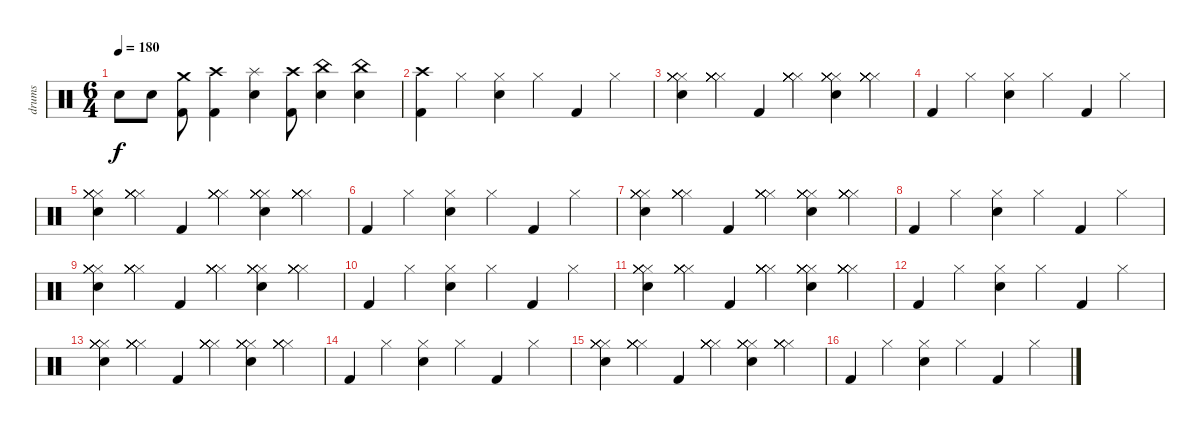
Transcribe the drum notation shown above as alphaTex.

\track ("drums" "drums") {instrument percussion}
\staff {score}
\articulation defaults
\ts (6 4)
\tempo 180
\clef neutral
\ks c "Snare (hit) 2".8{dy f} "Snare (hit) 2".8
("Kick (hit) 2" "Crash medium (hit)").8 ("Kick (hit) 2" "Crash high (hit)").4 ("Snare (hit) 2" "Splash (hit)").4 ("Kick (hit) 2" "Crash high (hit)").8 ("Snare (hit) 2" "China (hit)").4 ("Snare (hit) 2" "China (hit)").4 |
("Crash high (hit)" "Kick (hit) 2").4 "Hi-Hat (closed)".4 ("Snare (hit) 2" "Hi-Hat (closed)").4 "Hi-Hat (closed)".4 "Kick (hit) 2".4 "Hi-Hat (closed)".4 |
("Snare (hit) 2" "Hi-Hat (closed)" "Hi-Hat (closed)" "Hi-Hat (closed)" "Hi-Hat (closed)" "Hi-Hat (closed)").4 ("Hi-Hat (closed)" "Hi-Hat (closed)" "Hi-Hat (closed)" "Hi-Hat (closed)" "Hi-Hat (closed)" "Hi-Hat (closed)").4 "Kick (hit) 2".4 ("Hi-Hat (closed)" "Hi-Hat (closed)" "Hi-Hat (closed)" "Hi-Hat (closed)" "Hi-Hat (closed)" "Hi-Hat (closed)").4 ("Snare (hit) 2" "Hi-Hat (closed)" "Hi-Hat (closed)" "Hi-Hat (closed)" "Hi-Hat (closed)" "Hi-Hat (closed)").4 ("Hi-Hat (closed)" "Hi-Hat (closed)" "Hi-Hat (closed)" "Hi-Hat (closed)" "Hi-Hat (closed)" "Hi-Hat (closed)").4 |
"Kick (hit) 2".4 "Hi-Hat (closed)".4 ("Snare (hit) 2" "Hi-Hat (closed)").4 "Hi-Hat (closed)".4 "Kick (hit) 2".4 "Hi-Hat (closed)".4 |
("Snare (hit) 2" "Hi-Hat (closed)" "Hi-Hat (closed)" "Hi-Hat (closed)" "Hi-Hat (closed)" "Hi-Hat (closed)").4 ("Hi-Hat (closed)" "Hi-Hat (closed)" "Hi-Hat (closed)" "Hi-Hat (closed)" "Hi-Hat (closed)" "Hi-Hat (closed)").4 "Kick (hit) 2".4 ("Hi-Hat (closed)" "Hi-Hat (closed)" "Hi-Hat (closed)" "Hi-Hat (closed)" "Hi-Hat (closed)" "Hi-Hat (closed)").4 ("Snare (hit) 2" "Hi-Hat (closed)" "Hi-Hat (closed)" "Hi-Hat (closed)" "Hi-Hat (closed)" "Hi-Hat (closed)").4 ("Hi-Hat (closed)" "Hi-Hat (closed)" "Hi-Hat (closed)" "Hi-Hat (closed)" "Hi-Hat (closed)" "Hi-Hat (closed)").4 |
"Kick (hit) 2".4 "Hi-Hat (closed)".4 ("Snare (hit) 2" "Hi-Hat (closed)").4 "Hi-Hat (closed)".4 "Kick (hit) 2".4 "Hi-Hat (closed)".4 |
("Snare (hit) 2" "Hi-Hat (closed)" "Hi-Hat (closed)" "Hi-Hat (closed)" "Hi-Hat (closed)" "Hi-Hat (closed)").4 ("Hi-Hat (closed)" "Hi-Hat (closed)" "Hi-Hat (closed)" "Hi-Hat (closed)" "Hi-Hat (closed)" "Hi-Hat (closed)").4 "Kick (hit) 2".4 ("Hi-Hat (closed)" "Hi-Hat (closed)" "Hi-Hat (closed)" "Hi-Hat (closed)" "Hi-Hat (closed)" "Hi-Hat (closed)").4 ("Snare (hit) 2" "Hi-Hat (closed)" "Hi-Hat (closed)" "Hi-Hat (closed)" "Hi-Hat (closed)" "Hi-Hat (closed)").4 ("Hi-Hat (closed)" "Hi-Hat (closed)" "Hi-Hat (closed)" "Hi-Hat (closed)" "Hi-Hat (closed)" "Hi-Hat (closed)").4 |
"Kick (hit) 2".4 "Hi-Hat (closed)".4 ("Snare (hit) 2" "Hi-Hat (closed)").4 "Hi-Hat (closed)".4 "Kick (hit) 2".4 "Hi-Hat (closed)".4 |
("Snare (hit) 2" "Hi-Hat (closed)" "Hi-Hat (closed)" "Hi-Hat (closed)" "Hi-Hat (closed)" "Hi-Hat (closed)").4 ("Hi-Hat (closed)" "Hi-Hat (closed)" "Hi-Hat (closed)" "Hi-Hat (closed)" "Hi-Hat (closed)" "Hi-Hat (closed)").4 "Kick (hit) 2".4 ("Hi-Hat (closed)" "Hi-Hat (closed)" "Hi-Hat (closed)" "Hi-Hat (closed)" "Hi-Hat (closed)" "Hi-Hat (closed)").4 ("Snare (hit) 2" "Hi-Hat (closed)" "Hi-Hat (closed)" "Hi-Hat (closed)" "Hi-Hat (closed)" "Hi-Hat (closed)").4 ("Hi-Hat (closed)" "Hi-Hat (closed)" "Hi-Hat (closed)" "Hi-Hat (closed)" "Hi-Hat (closed)" "Hi-Hat (closed)").4 |
"Kick (hit) 2".4 "Hi-Hat (closed)".4 ("Snare (hit) 2" "Hi-Hat (closed)").4 "Hi-Hat (closed)".4 "Kick (hit) 2".4 "Hi-Hat (closed)".4 |
("Snare (hit) 2" "Hi-Hat (closed)" "Hi-Hat (closed)" "Hi-Hat (closed)" "Hi-Hat (closed)" "Hi-Hat (closed)").4 ("Hi-Hat (closed)" "Hi-Hat (closed)" "Hi-Hat (closed)" "Hi-Hat (closed)" "Hi-Hat (closed)" "Hi-Hat (closed)").4 "Kick (hit) 2".4 ("Hi-Hat (closed)" "Hi-Hat (closed)" "Hi-Hat (closed)" "Hi-Hat (closed)" "Hi-Hat (closed)" "Hi-Hat (closed)").4 ("Snare (hit) 2" "Hi-Hat (closed)" "Hi-Hat (closed)" "Hi-Hat (closed)" "Hi-Hat (closed)" "Hi-Hat (closed)").4 ("Hi-Hat (closed)" "Hi-Hat (closed)" "Hi-Hat (closed)" "Hi-Hat (closed)" "Hi-Hat (closed)" "Hi-Hat (closed)").4 |
"Kick (hit) 2".4 "Hi-Hat (closed)".4 ("Snare (hit) 2" "Hi-Hat (closed)").4 "Hi-Hat (closed)".4 "Kick (hit) 2".4 "Hi-Hat (closed)".4 |
("Snare (hit) 2" "Hi-Hat (closed)" "Hi-Hat (closed)" "Hi-Hat (closed)" "Hi-Hat (closed)" "Hi-Hat (closed)").4 ("Hi-Hat (closed)" "Hi-Hat (closed)" "Hi-Hat (closed)" "Hi-Hat (closed)" "Hi-Hat (closed)" "Hi-Hat (closed)").4 "Kick (hit) 2".4 ("Hi-Hat (closed)" "Hi-Hat (closed)" "Hi-Hat (closed)" "Hi-Hat (closed)" "Hi-Hat (closed)" "Hi-Hat (closed)").4 ("Snare (hit) 2" "Hi-Hat (closed)" "Hi-Hat (closed)" "Hi-Hat (closed)" "Hi-Hat (closed)" "Hi-Hat (closed)").4 ("Hi-Hat (closed)" "Hi-Hat (closed)" "Hi-Hat (closed)" "Hi-Hat (closed)" "Hi-Hat (closed)" "Hi-Hat (closed)").4 |
"Kick (hit) 2".4 "Hi-Hat (closed)".4 ("Snare (hit) 2" "Hi-Hat (closed)").4 "Hi-Hat (closed)".4 "Kick (hit) 2".4 "Hi-Hat (closed)".4 |
("Snare (hit) 2" "Hi-Hat (closed)" "Hi-Hat (closed)" "Hi-Hat (closed)" "Hi-Hat (closed)" "Hi-Hat (closed)").4 ("Hi-Hat (closed)" "Hi-Hat (closed)" "Hi-Hat (closed)" "Hi-Hat (closed)" "Hi-Hat (closed)" "Hi-Hat (closed)").4 "Kick (hit) 2".4 ("Hi-Hat (closed)" "Hi-Hat (closed)" "Hi-Hat (closed)" "Hi-Hat (closed)" "Hi-Hat (closed)" "Hi-Hat (closed)").4 ("Snare (hit) 2" "Hi-Hat (closed)" "Hi-Hat (closed)" "Hi-Hat (closed)" "Hi-Hat (closed)" "Hi-Hat (closed)").4 ("Hi-Hat (closed)" "Hi-Hat (closed)" "Hi-Hat (closed)" "Hi-Hat (closed)" "Hi-Hat (closed)" "Hi-Hat (closed)").4 |
"Kick (hit) 2".4 "Hi-Hat (closed)".4 ("Snare (hit) 2" "Hi-Hat (closed)").4 "Hi-Hat (closed)".4 "Kick (hit) 2".4 "Hi-Hat (closed)".4
